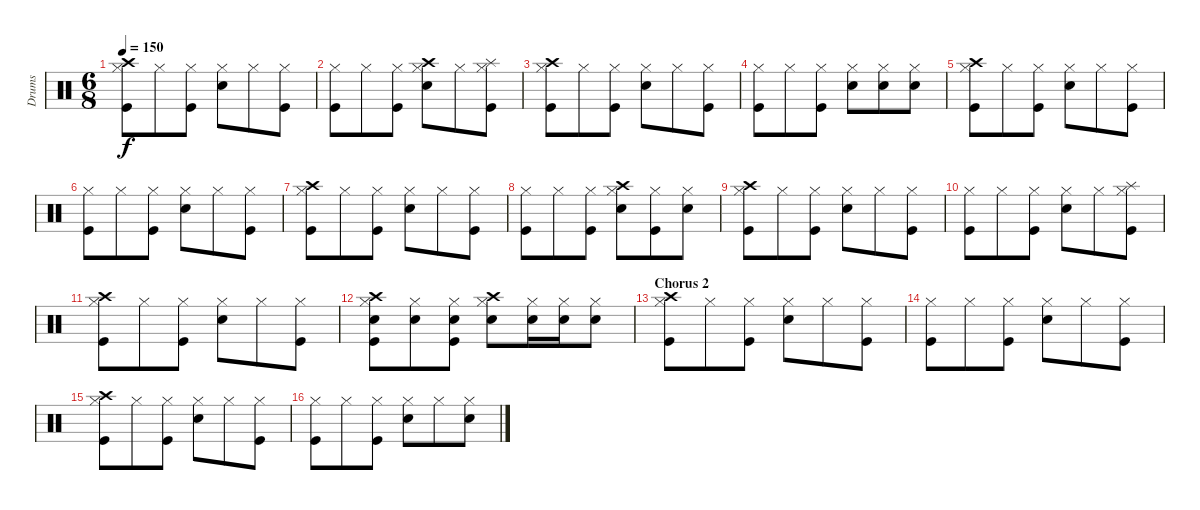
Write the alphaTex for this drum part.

\track ("Drums" "Drums") {instrument percussion}
\staff {score}
\articulation defaults
\ts (6 8)
\tempo 150
\clef neutral
\ks c
("Hi-Hat (closed)" "Crash high (hit)" "Kick (hit)").8{dy f} "Hi-Hat (closed)".8 ("Hi-Hat (closed)" "Kick (hit)").8 ("Hi-Hat (closed)" "Snare (hit) 2").8 "Hi-Hat (closed)".8 ("Hi-Hat (closed)" "Kick (hit)").8 |
("Hi-Hat (closed)" "Kick (hit)").8 "Hi-Hat (closed)".8 ("Hi-Hat (closed)" "Kick (hit)").8 ("Hi-Hat (closed)" "Crash high (hit)" "Snare (hit) 2").8 "Hi-Hat (closed)".8 ("Hi-Hat (closed)" "Splash (hit)" "Kick (hit)").8 |
("Hi-Hat (closed)" "Crash high (hit)" "Kick (hit)").8 "Hi-Hat (closed)".8 ("Hi-Hat (closed)" "Kick (hit)").8 ("Hi-Hat (closed)" "Snare (hit) 2").8 "Hi-Hat (closed)".8 ("Hi-Hat (closed)" "Kick (hit)").8 |
("Hi-Hat (closed)" "Kick (hit)").8 "Hi-Hat (closed)".8 ("Hi-Hat (closed)" "Kick (hit)").8 ("Hi-Hat (closed)" "Snare (hit) 2").8 ("Hi-Hat (closed)" "Snare (hit) 2").8 ("Hi-Hat (closed)" "Snare (hit) 2").8 |
("Hi-Hat (closed)" "Crash high (hit)" "Kick (hit)").8 "Hi-Hat (closed)".8 ("Hi-Hat (closed)" "Kick (hit)").8 ("Hi-Hat (closed)" "Snare (hit) 2").8 "Hi-Hat (closed)".8 ("Hi-Hat (closed)" "Kick (hit)").8 |
("Hi-Hat (closed)" "Kick (hit)").8 "Hi-Hat (closed)".8 ("Hi-Hat (closed)" "Kick (hit)").8 ("Hi-Hat (closed)" "Snare (hit) 2").8 "Hi-Hat (closed)".8 ("Hi-Hat (closed)" "Kick (hit)").8 |
("Hi-Hat (closed)" "Crash high (hit)" "Kick (hit)").8 "Hi-Hat (closed)".8 ("Hi-Hat (closed)" "Kick (hit)").8 ("Hi-Hat (closed)" "Snare (hit) 2").8 "Hi-Hat (closed)".8 ("Hi-Hat (closed)" "Kick (hit)").8 |
("Hi-Hat (closed)" "Kick (hit)").8 "Hi-Hat (closed)".8 ("Hi-Hat (closed)" "Kick (hit)").8 ("Hi-Hat (closed)" "Crash high (hit)" "Snare (hit) 2").8 ("Hi-Hat (closed)" "Kick (hit)").8 ("Hi-Hat (closed)" "Snare (hit) 2").8 |
("Hi-Hat (closed)" "Crash high (hit)" "Kick (hit)").8 "Hi-Hat (closed)".8 ("Hi-Hat (closed)" "Kick (hit)").8 ("Hi-Hat (closed)" "Snare (hit) 2").8 "Hi-Hat (closed)".8 ("Hi-Hat (closed)" "Kick (hit)").8 |
("Hi-Hat (closed)" "Kick (hit)").8 "Hi-Hat (closed)".8 ("Hi-Hat (closed)" "Kick (hit)").8 ("Hi-Hat (closed)" "Snare (hit) 2").8 "Hi-Hat (closed)".8 ("Hi-Hat (closed)" "Splash (hit)" "Kick (hit)").8 |
("Hi-Hat (closed)" "Crash high (hit)" "Kick (hit)").8 "Hi-Hat (closed)".8 ("Hi-Hat (closed)" "Kick (hit)").8 ("Hi-Hat (closed)" "Snare (hit) 2").8 "Hi-Hat (closed)".8 ("Hi-Hat (closed)" "Kick (hit)").8 |
("Hi-Hat (closed)" "Crash high (hit)" "Snare (hit) 2" "Kick (hit)").8 ("Hi-Hat (closed)" "Snare (hit) 2").8 ("Hi-Hat (closed)" "Snare (hit) 2" "Kick (hit)").8 ("Hi-Hat (closed)" "Crash high (hit)" "Snare (hit) 2").8 ("Hi-Hat (closed)" "Snare (hit) 2").16 ("Hi-Hat (closed)" "Snare (hit) 2").16 ("Hi-Hat (closed)" "Snare (hit) 2").8 |
\section ("" "Chorus 2")
("Hi-Hat (closed)" "Crash high (hit)" "Kick (hit)").8 "Hi-Hat (closed)".8 ("Hi-Hat (closed)" "Kick (hit)").8 ("Hi-Hat (closed)" "Snare (hit) 2").8 "Hi-Hat (closed)".8 ("Hi-Hat (closed)" "Kick (hit)").8 |
("Hi-Hat (closed)" "Kick (hit)").8 "Hi-Hat (closed)".8 ("Hi-Hat (closed)" "Kick (hit)").8 ("Hi-Hat (closed)" "Snare (hit) 2").8 "Hi-Hat (closed)".8 ("Hi-Hat (closed)" "Kick (hit)").8 |
("Hi-Hat (closed)" "Crash high (hit)" "Kick (hit)").8 "Hi-Hat (closed)".8 ("Hi-Hat (closed)" "Kick (hit)").8 ("Hi-Hat (closed)" "Snare (hit) 2").8 "Hi-Hat (closed)".8 ("Hi-Hat (closed)" "Kick (hit)").8 |
("Hi-Hat (closed)" "Kick (hit)").8 "Hi-Hat (closed)".8 ("Hi-Hat (closed)" "Kick (hit)").8 ("Hi-Hat (closed)" "Snare (hit) 2").8 "Hi-Hat (closed)".8 ("Hi-Hat (closed)" "Snare (hit) 2").8
